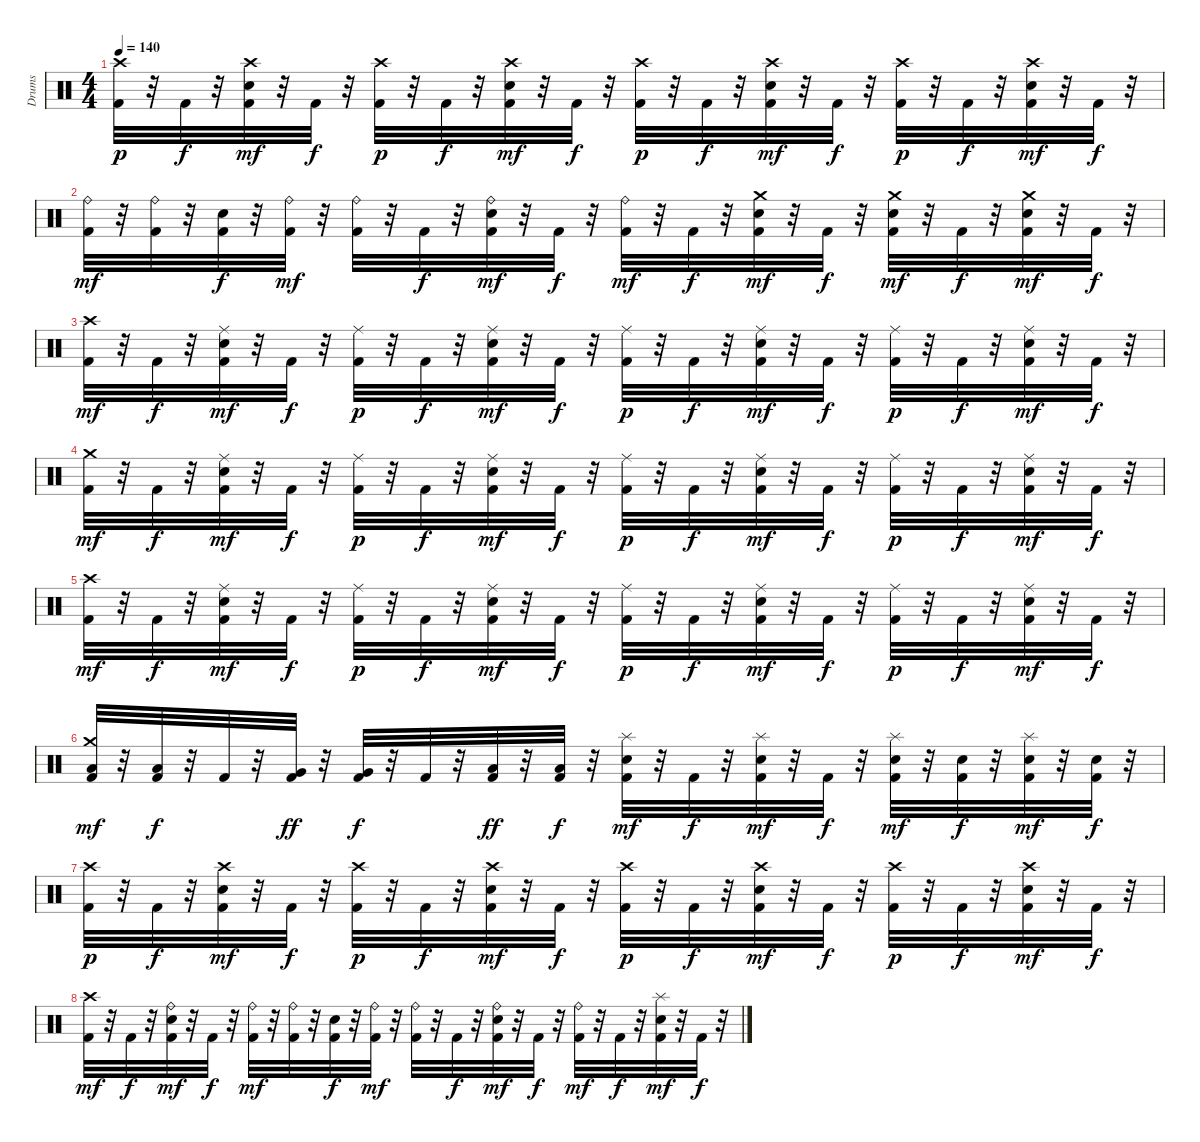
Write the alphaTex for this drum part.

\track ("Drums" "Drums") {instrument percussion}
\staff {score}
\articulation defaults
\ts (4 4)
\tempo 140
\clef neutral
\ks c
("Kick (hit) 2" "Crash high (hit)").32{dy p} r.32 "Kick (hit) 2".32{dy f} r.32 ("Kick (hit) 2" "Electric Snare (hit)" "Crash high (hit)").32{dy mf} r.32 "Kick (hit) 2".32{dy f} r.32 ("Kick (hit) 2" "Crash high (hit)").32{dy p} r.32 "Kick (hit) 2".32{dy f} r.32 ("Kick (hit) 2" "Electric Snare (hit)" "Crash high (hit)").32{dy mf} r.32 "Kick (hit) 2".32{dy f} r.32 ("Kick (hit) 2" "Crash high (hit)").32{dy p} r.32 "Kick (hit) 2".32{dy f} r.32 ("Kick (hit) 2" "Electric Snare (hit)" "Crash high (hit)").32{dy mf} r.32 "Kick (hit) 2".32{dy f} r.32 ("Kick (hit) 2" "Crash high (hit)").32{dy p} r.32 "Kick (hit) 2".32{dy f} r.32 ("Kick (hit) 2" "Electric Snare (hit)" "Crash high (hit)").32{dy mf} r.32 "Kick (hit) 2".32{dy f} r.32 |
("Kick (hit) 2" "Ride (bell)").32{dy mf} r.32 ("Kick (hit) 2" "Ride (bell)").32 r.32 ("Kick (hit) 2" "Electric Snare (hit)").32{dy f} r.32 ("Kick (hit) 2" "Ride (bell)").32{dy mf} r.32 ("Kick (hit) 2" "Ride (bell)").32 r.32 "Kick (hit) 2".32{dy f} r.32 ("Kick (hit) 2" "Electric Snare (hit)" "Ride (bell)").32{dy mf} r.32 "Kick (hit) 2".32{dy f} r.32 ("Kick (hit) 2" "Ride (bell)").32{dy mf} r.32 "Kick (hit) 2".32{dy f} r.32 ("Kick (hit) 2" "Electric Snare (hit)" "Crash medium (hit)").32{dy mf} r.32 "Kick (hit) 2".32{dy f} r.32 ("Kick (hit) 2" "Electric Snare (hit)" "Crash medium (hit)").32{dy mf} r.32 "Kick (hit) 2".32{dy f} r.32 ("Kick (hit) 2" "Electric Snare (hit)" "Crash medium (hit)").32{dy mf} r.32 "Kick (hit) 2".32{dy f} r.32 |
("Kick (hit) 2" "Crash high (hit)").32{dy mf} r.32 "Kick (hit) 2".32{dy f} r.32 ("Kick (hit) 2" "Electric Snare (hit)" "Ride (middle)").32{dy mf} r.32 "Kick (hit) 2".32{dy f} r.32 ("Kick (hit) 2" "Ride (middle)").32{dy p} r.32 "Kick (hit) 2".32{dy f} r.32 ("Kick (hit) 2" "Electric Snare (hit)" "Ride (middle)").32{dy mf} r.32 "Kick (hit) 2".32{dy f} r.32 ("Kick (hit) 2" "Ride (middle)").32{dy p} r.32 "Kick (hit) 2".32{dy f} r.32 ("Kick (hit) 2" "Electric Snare (hit)" "Ride (middle)").32{dy mf} r.32 "Kick (hit) 2".32{dy f} r.32 ("Kick (hit) 2" "Ride (middle)").32{dy p} r.32 "Kick (hit) 2".32{dy f} r.32 ("Kick (hit) 2" "Electric Snare (hit)" "Ride (middle)").32{dy mf} r.32 "Kick (hit) 2".32{dy f} r.32 |
("Kick (hit) 2" "Crash medium (hit)").32{dy mf} r.32 "Kick (hit) 2".32{dy f} r.32 ("Kick (hit) 2" "Electric Snare (hit)" "Ride (middle)").32{dy mf} r.32 "Kick (hit) 2".32{dy f} r.32 ("Kick (hit) 2" "Ride (middle)").32{dy p} r.32 "Kick (hit) 2".32{dy f} r.32 ("Kick (hit) 2" "Electric Snare (hit)" "Ride (middle)").32{dy mf} r.32 "Kick (hit) 2".32{dy f} r.32 ("Kick (hit) 2" "Ride (middle)").32{dy p} r.32 "Kick (hit) 2".32{dy f} r.32 ("Kick (hit) 2" "Electric Snare (hit)" "Ride (middle)").32{dy mf} r.32 "Kick (hit) 2".32{dy f} r.32 ("Kick (hit) 2" "Ride (middle)").32{dy p} r.32 "Kick (hit) 2".32{dy f} r.32 ("Kick (hit) 2" "Electric Snare (hit)" "Ride (middle)").32{dy mf} r.32 "Kick (hit) 2".32{dy f} r.32 |
("Kick (hit) 2" "Crash high (hit)").32{dy mf} r.32 "Kick (hit) 2".32{dy f} r.32 ("Kick (hit) 2" "Electric Snare (hit)" "Ride (middle)").32{dy mf} r.32 "Kick (hit) 2".32{dy f} r.32 ("Kick (hit) 2" "Ride (middle)").32{dy p} r.32 "Kick (hit) 2".32{dy f} r.32 ("Kick (hit) 2" "Electric Snare (hit)" "Ride (middle)").32{dy mf} r.32 "Kick (hit) 2".32{dy f} r.32 ("Kick (hit) 2" "Ride (middle)").32{dy p} r.32 "Kick (hit) 2".32{dy f} r.32 ("Kick (hit) 2" "Electric Snare (hit)" "Ride (middle)").32{dy mf} r.32 "Kick (hit) 2".32{dy f} r.32 ("Kick (hit) 2" "Ride (middle)").32{dy p} r.32 "Kick (hit) 2".32{dy f} r.32 ("Kick (hit) 2" "Electric Snare (hit)" "Ride (middle)").32{dy mf} r.32 "Kick (hit) 2".32{dy f} r.32 |
("Kick (hit) 2" "Low Tom (hit)" "Crash medium (hit)").32{dy mf} r.32 ("Kick (hit) 2" "Low Tom (hit)").32{dy f} r.32 "Kick (hit) 2".32 r.32 ("Kick (hit) 2" "Very Low Tom (hit)").32{dy ff} r.32 ("Kick (hit) 2" "Very Low Tom (hit)").32{dy f} r.32 "Kick (hit) 2".32 r.32 ("Kick (hit) 2" "Low Floor Tom (hit)").32{dy ff} r.32 ("Kick (hit) 2" "Low Floor Tom (hit)").32{dy f} r.32 ("Kick (hit) 2" "Electric Snare (hit)" "Splash (hit)").32{dy mf} r.32 "Kick (hit) 2".32{dy f} r.32 ("Kick (hit) 2" "Electric Snare (hit)" "Splash (hit)").32{dy mf} r.32 "Kick (hit) 2".32{dy f} r.32 ("Kick (hit) 2" "Electric Snare (hit)" "Splash (hit)").32{dy mf} r.32 ("Kick (hit) 2" "Electric Snare (hit)").32{dy f} r.32 ("Kick (hit) 2" "Electric Snare (hit)" "Splash (hit)").32{dy mf} r.32 ("Kick (hit) 2" "Electric Snare (hit)").32{dy f} r.32 |
("Kick (hit) 2" "Crash high (hit)").32{dy p} r.32 "Kick (hit) 2".32{dy f} r.32 ("Kick (hit) 2" "Electric Snare (hit)" "Crash high (hit)").32{dy mf} r.32 "Kick (hit) 2".32{dy f} r.32 ("Kick (hit) 2" "Crash high (hit)").32{dy p} r.32 "Kick (hit) 2".32{dy f} r.32 ("Kick (hit) 2" "Electric Snare (hit)" "Crash high (hit)").32{dy mf} r.32 "Kick (hit) 2".32{dy f} r.32 ("Kick (hit) 2" "Crash high (hit)").32{dy p} r.32 "Kick (hit) 2".32{dy f} r.32 ("Kick (hit) 2" "Electric Snare (hit)" "Crash high (hit)").32{dy mf} r.32 "Kick (hit) 2".32{dy f} r.32 ("Kick (hit) 2" "Crash high (hit)").32{dy p} r.32 "Kick (hit) 2".32{dy f} r.32 ("Kick (hit) 2" "Electric Snare (hit)" "Crash high (hit)").32{dy mf} r.32 "Kick (hit) 2".32{dy f} r.32 |
("Kick (hit) 2" "Crash high (hit)").32{dy mf} r.32 "Kick (hit) 2".32{dy f} r.32 ("Kick (hit) 2" "Electric Snare (hit)" "Ride (bell)").32{dy mf} r.32 "Kick (hit) 2".32{dy f} r.32 ("Kick (hit) 2" "Ride (bell)").32{dy mf} r.32 ("Kick (hit) 2" "Ride (bell)").32 r.32 ("Kick (hit) 2" "Electric Snare (hit)").32{dy f} r.32 ("Kick (hit) 2" "Ride (bell)").32{dy mf} r.32 ("Kick (hit) 2" "Ride (bell)").32 r.32 "Kick (hit) 2".32{dy f} r.32 ("Kick (hit) 2" "Electric Snare (hit)" "Ride (bell)").32{dy mf} r.32 "Kick (hit) 2".32{dy f} r.32 ("Kick (hit) 2" "Ride (bell)").32{dy mf} r.32 "Kick (hit) 2".32{dy f} r.32 ("Kick (hit) 2" "Electric Snare (hit)" "Splash (hit)").32{dy mf} r.32 "Kick (hit) 2".32{dy f} r.32
